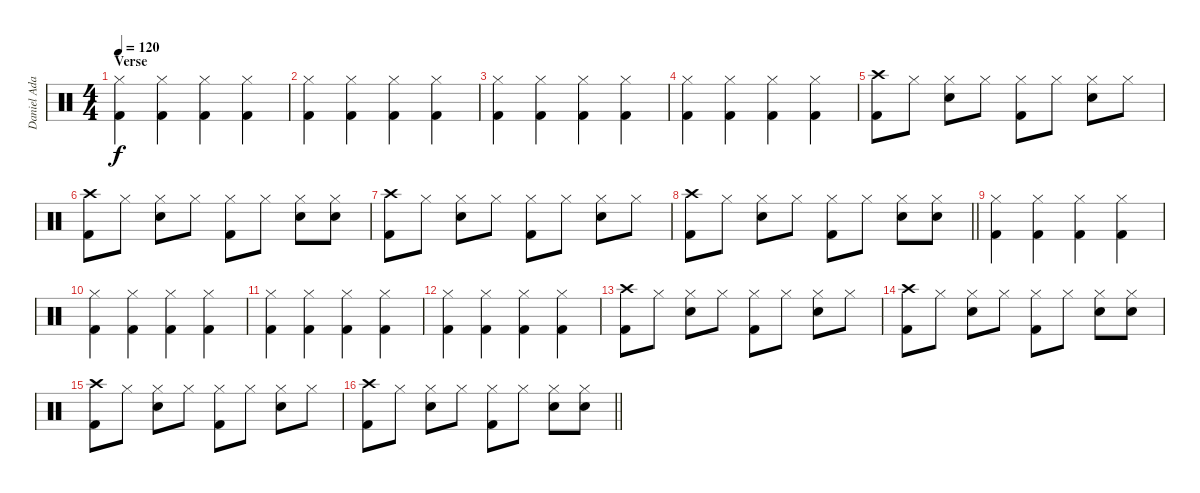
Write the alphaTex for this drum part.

\track ("Daniel Adair" "Daniel Ada") {instrument percussion}
\staff {score}
\articulation defaults
\ts (4 4)
\section ("" "Verse")
\tempo 120
\clef neutral
\ks c
("Hi-Hat (closed)" "Kick (hit) 2").4{dy f} ("Hi-Hat (closed)" "Kick (hit) 2").4 ("Hi-Hat (closed)" "Kick (hit) 2").4 ("Hi-Hat (closed)" "Kick (hit) 2").4 |
("Hi-Hat (closed)" "Kick (hit) 2").4 ("Hi-Hat (closed)" "Kick (hit) 2").4 ("Hi-Hat (closed)" "Kick (hit) 2").4 ("Hi-Hat (closed)" "Kick (hit) 2").4 |
("Hi-Hat (closed)" "Kick (hit) 2").4 ("Hi-Hat (closed)" "Kick (hit) 2").4 ("Hi-Hat (closed)" "Kick (hit) 2").4 ("Hi-Hat (closed)" "Kick (hit) 2").4 |
("Hi-Hat (closed)" "Kick (hit) 2").4 ("Hi-Hat (closed)" "Kick (hit) 2").4 ("Hi-Hat (closed)" "Kick (hit) 2").4 ("Hi-Hat (closed)" "Kick (hit) 2").4 |
("Crash high (hit)" "Kick (hit) 2").8 "Hi-Hat (closed)".8 ("Hi-Hat (closed)" "Electric Snare (hit)").8 "Hi-Hat (closed)".8 ("Hi-Hat (closed)" "Kick (hit) 2").8 "Hi-Hat (closed)".8 ("Hi-Hat (closed)" "Electric Snare (hit)").8 "Hi-Hat (closed)".8 |
("Crash high (hit)" "Kick (hit) 2").8 "Hi-Hat (closed)".8 ("Hi-Hat (closed)" "Electric Snare (hit)").8 "Hi-Hat (closed)".8 ("Hi-Hat (closed)" "Kick (hit) 2").8 "Hi-Hat (closed)".8 ("Hi-Hat (closed)" "Electric Snare (hit)").8 ("Hi-Hat (closed)" "Electric Snare (hit)").8 |
("Crash high (hit)" "Kick (hit) 2").8 "Hi-Hat (closed)".8 ("Hi-Hat (closed)" "Electric Snare (hit)").8 "Hi-Hat (closed)".8 ("Hi-Hat (closed)" "Kick (hit) 2").8 "Hi-Hat (closed)".8 ("Hi-Hat (closed)" "Electric Snare (hit)").8 "Hi-Hat (closed)".8 |
\barLineRight lightlight
("Crash high (hit)" "Kick (hit) 2").8 "Hi-Hat (closed)".8 ("Hi-Hat (closed)" "Electric Snare (hit)").8 "Hi-Hat (closed)".8 ("Hi-Hat (closed)" "Kick (hit) 2").8 "Hi-Hat (closed)".8 ("Hi-Hat (closed)" "Electric Snare (hit)").8 ("Hi-Hat (closed)" "Electric Snare (hit)").8 |
("Hi-Hat (closed)" "Kick (hit) 2").4 ("Hi-Hat (closed)" "Kick (hit) 2").4 ("Hi-Hat (closed)" "Kick (hit) 2").4 ("Hi-Hat (closed)" "Kick (hit) 2").4 |
("Hi-Hat (closed)" "Kick (hit) 2").4 ("Hi-Hat (closed)" "Kick (hit) 2").4 ("Hi-Hat (closed)" "Kick (hit) 2").4 ("Hi-Hat (closed)" "Kick (hit) 2").4 |
("Hi-Hat (closed)" "Kick (hit) 2").4 ("Hi-Hat (closed)" "Kick (hit) 2").4 ("Hi-Hat (closed)" "Kick (hit) 2").4 ("Hi-Hat (closed)" "Kick (hit) 2").4 |
("Hi-Hat (closed)" "Kick (hit) 2").4 ("Hi-Hat (closed)" "Kick (hit) 2").4 ("Hi-Hat (closed)" "Kick (hit) 2").4 ("Hi-Hat (closed)" "Kick (hit) 2").4 |
("Crash high (hit)" "Kick (hit) 2").8 "Hi-Hat (closed)".8 ("Hi-Hat (closed)" "Electric Snare (hit)").8 "Hi-Hat (closed)".8 ("Hi-Hat (closed)" "Kick (hit) 2").8 "Hi-Hat (closed)".8 ("Hi-Hat (closed)" "Electric Snare (hit)").8 "Hi-Hat (closed)".8 |
("Crash high (hit)" "Kick (hit) 2").8 "Hi-Hat (closed)".8 ("Hi-Hat (closed)" "Electric Snare (hit)").8 "Hi-Hat (closed)".8 ("Hi-Hat (closed)" "Kick (hit) 2").8 "Hi-Hat (closed)".8 ("Hi-Hat (closed)" "Electric Snare (hit)").8 ("Hi-Hat (closed)" "Electric Snare (hit)").8 |
("Crash high (hit)" "Kick (hit) 2").8 "Hi-Hat (closed)".8 ("Hi-Hat (closed)" "Electric Snare (hit)").8 "Hi-Hat (closed)".8 ("Hi-Hat (closed)" "Kick (hit) 2").8 "Hi-Hat (closed)".8 ("Hi-Hat (closed)" "Electric Snare (hit)").8 "Hi-Hat (closed)".8 |
\barLineRight lightlight
("Crash high (hit)" "Kick (hit) 2").8 "Hi-Hat (closed)".8 ("Hi-Hat (closed)" "Electric Snare (hit)").8 "Hi-Hat (closed)".8 ("Hi-Hat (closed)" "Kick (hit) 2").8 "Hi-Hat (closed)".8 ("Hi-Hat (closed)" "Electric Snare (hit)").8 ("Hi-Hat (closed)" "Electric Snare (hit)").8
